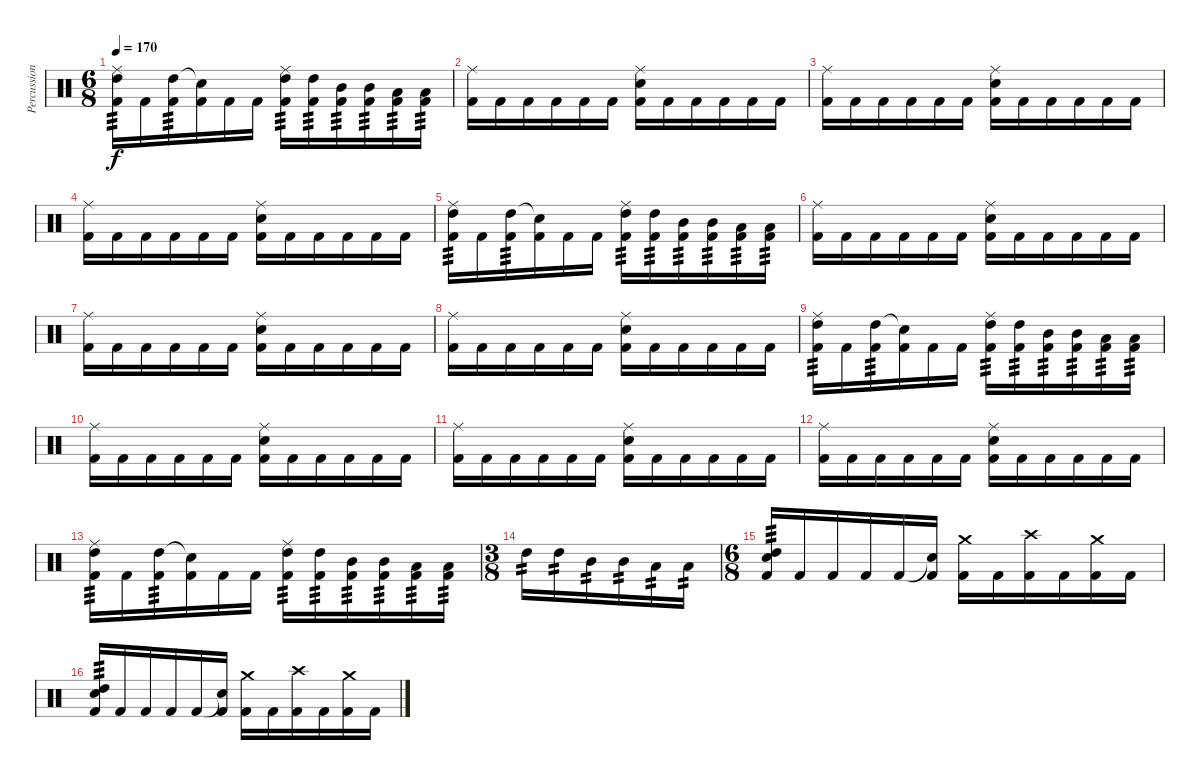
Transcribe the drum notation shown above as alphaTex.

\track ("Percussions" "Percussion") {instrument percussion}
\staff {score}
\articulation defaults
\ts (6 8)
\tempo 170
\clef neutral
\ks c
("Ride (middle)" "High Tom (hit)" "Kick (hit) 2").16{tp 3 dy f} "Kick (hit) 2".16 ("High Tom (hit)" "Kick (hit) 2").16{tp 3} ("Snare (hit)"{t} "Kick (hit) 2").16 "Kick (hit) 2".16 "Kick (hit) 2".16 ("Ride (middle)" "High Tom (hit)" "Kick (hit) 2").16{tp 3} ("High Tom (hit)" "Kick (hit) 2").16{tp 3} ("Mid Tom (hit)" "Kick (hit) 2").16{tp 3} ("Mid Tom (hit)" "Kick (hit) 2").16{tp 3} ("Low Tom (hit)" "Kick (hit) 2").16{tp 3} ("Low Tom (hit)" "Kick (hit) 2").16{tp 3} |
("Ride (middle)" "Kick (hit) 2").16 "Kick (hit) 2".16 "Kick (hit) 2".16 "Kick (hit) 2".16 "Kick (hit) 2".16 "Kick (hit) 2".16 ("Snare (hit) 2" "Ride (middle)" "Kick (hit) 2").16 "Kick (hit) 2".16 "Kick (hit) 2".16 "Kick (hit) 2".16 "Kick (hit) 2".16 "Kick (hit) 2".16 |
("Ride (middle)" "Kick (hit) 2").16 "Kick (hit) 2".16 "Kick (hit) 2".16 "Kick (hit) 2".16 "Kick (hit) 2".16 "Kick (hit) 2".16 ("Snare (hit) 2" "Ride (middle)" "Kick (hit) 2").16 "Kick (hit) 2".16 "Kick (hit) 2".16 "Kick (hit) 2".16 "Kick (hit) 2".16 "Kick (hit) 2".16 |
("Ride (middle)" "Kick (hit) 2").16 "Kick (hit) 2".16 "Kick (hit) 2".16 "Kick (hit) 2".16 "Kick (hit) 2".16 "Kick (hit) 2".16 ("Snare (hit) 2" "Ride (middle)" "Kick (hit) 2").16 "Kick (hit) 2".16 "Kick (hit) 2".16 "Kick (hit) 2".16 "Kick (hit) 2".16 "Kick (hit) 2".16 |
("Ride (middle)" "High Tom (hit)" "Kick (hit) 2").16{tp 3} "Kick (hit) 2".16 ("High Tom (hit)" "Kick (hit) 2").16{tp 3} ("Snare (hit)"{t} "Kick (hit) 2").16 "Kick (hit) 2".16 "Kick (hit) 2".16 ("Ride (middle)" "High Tom (hit)" "Kick (hit) 2").16{tp 3} ("High Tom (hit)" "Kick (hit) 2").16{tp 3} ("Mid Tom (hit)" "Kick (hit) 2").16{tp 3} ("Mid Tom (hit)" "Kick (hit) 2").16{tp 3} ("Low Tom (hit)" "Kick (hit) 2").16{tp 3} ("Low Tom (hit)" "Kick (hit) 2").16{tp 3} |
("Ride (middle)" "Kick (hit) 2").16 "Kick (hit) 2".16 "Kick (hit) 2".16 "Kick (hit) 2".16 "Kick (hit) 2".16 "Kick (hit) 2".16 ("Snare (hit) 2" "Ride (middle)" "Kick (hit) 2").16 "Kick (hit) 2".16 "Kick (hit) 2".16 "Kick (hit) 2".16 "Kick (hit) 2".16 "Kick (hit) 2".16 |
("Ride (middle)" "Kick (hit) 2").16 "Kick (hit) 2".16 "Kick (hit) 2".16 "Kick (hit) 2".16 "Kick (hit) 2".16 "Kick (hit) 2".16 ("Snare (hit) 2" "Ride (middle)" "Kick (hit) 2").16 "Kick (hit) 2".16 "Kick (hit) 2".16 "Kick (hit) 2".16 "Kick (hit) 2".16 "Kick (hit) 2".16 |
("Ride (middle)" "Kick (hit) 2").16 "Kick (hit) 2".16 "Kick (hit) 2".16 "Kick (hit) 2".16 "Kick (hit) 2".16 "Kick (hit) 2".16 ("Snare (hit) 2" "Ride (middle)" "Kick (hit) 2").16 "Kick (hit) 2".16 "Kick (hit) 2".16 "Kick (hit) 2".16 "Kick (hit) 2".16 "Kick (hit) 2".16 |
("Ride (middle)" "High Tom (hit)" "Kick (hit) 2").16{tp 3} "Kick (hit) 2".16 ("High Tom (hit)" "Kick (hit) 2").16{tp 3} ("Snare (hit)"{t} "Kick (hit) 2").16 "Kick (hit) 2".16 "Kick (hit) 2".16 ("Ride (middle)" "High Tom (hit)" "Kick (hit) 2").16{tp 3} ("High Tom (hit)" "Kick (hit) 2").16{tp 3} ("Mid Tom (hit)" "Kick (hit) 2").16{tp 3} ("Mid Tom (hit)" "Kick (hit) 2").16{tp 3} ("Low Tom (hit)" "Kick (hit) 2").16{tp 3} ("Low Tom (hit)" "Kick (hit) 2").16{tp 3} |
("Ride (middle)" "Kick (hit) 2").16 "Kick (hit) 2".16 "Kick (hit) 2".16 "Kick (hit) 2".16 "Kick (hit) 2".16 "Kick (hit) 2".16 ("Snare (hit) 2" "Ride (middle)" "Kick (hit) 2").16 "Kick (hit) 2".16 "Kick (hit) 2".16 "Kick (hit) 2".16 "Kick (hit) 2".16 "Kick (hit) 2".16 |
("Ride (middle)" "Kick (hit) 2").16 "Kick (hit) 2".16 "Kick (hit) 2".16 "Kick (hit) 2".16 "Kick (hit) 2".16 "Kick (hit) 2".16 ("Snare (hit) 2" "Ride (middle)" "Kick (hit) 2").16 "Kick (hit) 2".16 "Kick (hit) 2".16 "Kick (hit) 2".16 "Kick (hit) 2".16 "Kick (hit) 2".16 |
("Ride (middle)" "Kick (hit) 2").16 "Kick (hit) 2".16 "Kick (hit) 2".16 "Kick (hit) 2".16 "Kick (hit) 2".16 "Kick (hit) 2".16 ("Snare (hit) 2" "Ride (middle)" "Kick (hit) 2").16 "Kick (hit) 2".16 "Kick (hit) 2".16 "Kick (hit) 2".16 "Kick (hit) 2".16 "Kick (hit) 2".16 |
("Ride (middle)" "High Tom (hit)" "Kick (hit) 2").16{tp 3} "Kick (hit) 2".16 ("High Tom (hit)" "Kick (hit) 2").16{tp 3} ("Snare (hit)"{t} "Kick (hit) 2").16 "Kick (hit) 2".16 "Kick (hit) 2".16 ("Ride (middle)" "High Tom (hit)" "Kick (hit) 2").16{tp 3} ("High Tom (hit)" "Kick (hit) 2").16{tp 3} ("Mid Tom (hit)" "Kick (hit) 2").16{tp 3} ("Mid Tom (hit)" "Kick (hit) 2").16{tp 3} ("Low Tom (hit)" "Kick (hit) 2").16{tp 3} ("Low Tom (hit)" "Kick (hit) 2").16{tp 3} |
\ts (3 8)
"High Tom (hit)".16{tp 2} "High Tom (hit)".16{tp 2} "Mid Tom (hit)".16{tp 2} "Mid Tom (hit)".16{tp 2} "Low Tom (hit)".16{tp 2} "Low Tom (hit)".16{tp 2} |
\ts (6 8)
("Snare (hit) 2" "High Tom (hit)" "Kick (hit) 2").16{tp 3} "Kick (hit) 2".16 "Kick (hit) 2".16 "Kick (hit) 2".16 "Kick (hit) 2".16 ("Snare (hit)"{t} "Kick (hit) 2").16 ("Crash medium (hit)" "Kick (hit) 2").16 "Kick (hit) 2".16 ("Crash high (hit)" "Kick (hit) 2").16 "Kick (hit) 2".16 ("Crash medium (hit)" "Kick (hit) 2").16 "Kick (hit) 2".16 |
("Snare (hit) 2" "High Tom (hit)" "Kick (hit) 2").16{tp 3} "Kick (hit) 2".16 "Kick (hit) 2".16 "Kick (hit) 2".16 "Kick (hit) 2".16 ("Snare (hit)"{t} "Kick (hit) 2").16 ("Crash medium (hit)" "Kick (hit) 2").16 "Kick (hit) 2".16 ("Crash high (hit)" "Kick (hit) 2").16 "Kick (hit) 2".16 ("Crash medium (hit)" "Kick (hit) 2").16 "Kick (hit) 2".16
